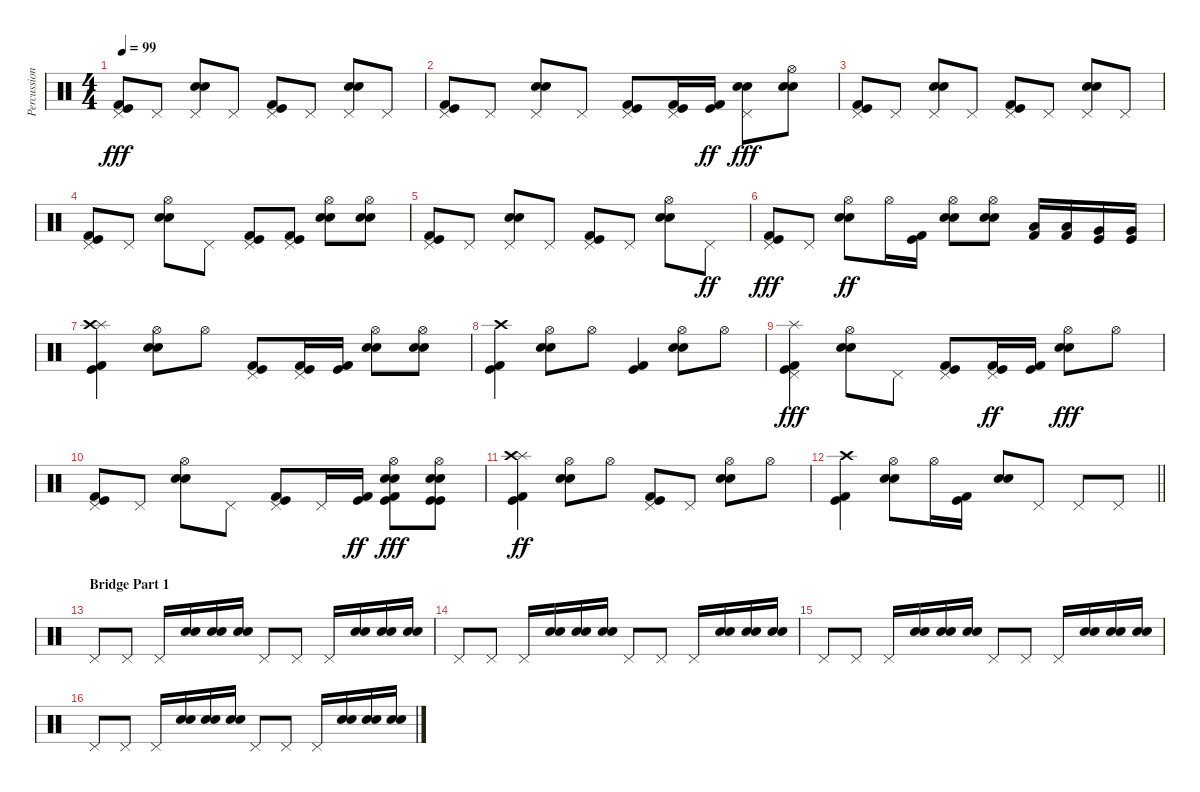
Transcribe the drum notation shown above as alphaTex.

\track ("Percussion" "Percussion") {instrument percussion}
\staff {score}
\articulation defaults
\ts (4 4)
\tempo 99
\clef neutral
\ks c
("Pedal Hi-Hat (hit)" "Kick (hit)" "Kick (hit) 2").8{dy fff} "Pedal Hi-Hat (hit)".8 ("Electric Snare (hit)" "Snare (hit) 2" "Pedal Hi-Hat (hit)").8 "Pedal Hi-Hat (hit)".8 ("Pedal Hi-Hat (hit)" "Kick (hit)" "Kick (hit) 2").8 "Pedal Hi-Hat (hit)".8 ("Electric Snare (hit)" "Snare (hit) 2" "Pedal Hi-Hat (hit)").8 "Pedal Hi-Hat (hit)".8 |
("Pedal Hi-Hat (hit)" "Kick (hit)" "Kick (hit) 2").8 "Pedal Hi-Hat (hit)".8 ("Electric Snare (hit)" "Snare (hit) 2" "Pedal Hi-Hat (hit)").8 "Pedal Hi-Hat (hit)".8 ("Pedal Hi-Hat (hit)" "Kick (hit)" "Kick (hit) 2").8 ("Pedal Hi-Hat (hit)" "Kick (hit)" "Kick (hit) 2").16 ("Kick (hit) 2" "Kick (hit)").16{dy ff} ("Electric Snare (hit)" "Snare (hit) 2" "Pedal Hi-Hat (hit)").8{dy fff} ("Electric Snare (hit)" "Snare (hit) 2" "Hi-Hat (open)").8 |
("Pedal Hi-Hat (hit)" "Kick (hit)" "Kick (hit) 2").8 "Pedal Hi-Hat (hit)".8 ("Electric Snare (hit)" "Snare (hit) 2" "Pedal Hi-Hat (hit)").8 "Pedal Hi-Hat (hit)".8 ("Pedal Hi-Hat (hit)" "Kick (hit)" "Kick (hit) 2").8 "Pedal Hi-Hat (hit)".8 ("Electric Snare (hit)" "Snare (hit) 2" "Pedal Hi-Hat (hit)").8 "Pedal Hi-Hat (hit)".8 |
("Pedal Hi-Hat (hit)" "Kick (hit)" "Kick (hit) 2").8 "Pedal Hi-Hat (hit)".8 ("Electric Snare (hit)" "Snare (hit) 2" "Hi-Hat (open)").8 "Pedal Hi-Hat (hit)".8 ("Pedal Hi-Hat (hit)" "Kick (hit)" "Kick (hit) 2").8 ("Pedal Hi-Hat (hit)" "Kick (hit)" "Kick (hit) 2").8 ("Electric Snare (hit)" "Snare (hit) 2" "Hi-Hat (open)").8 ("Electric Snare (hit)" "Snare (hit) 2" "Hi-Hat (open)").8 |
("Pedal Hi-Hat (hit)" "Kick (hit)" "Kick (hit) 2").8 "Pedal Hi-Hat (hit)".8 ("Electric Snare (hit)" "Snare (hit) 2" "Pedal Hi-Hat (hit)").8 "Pedal Hi-Hat (hit)".8 ("Pedal Hi-Hat (hit)" "Kick (hit)" "Kick (hit) 2").8 "Pedal Hi-Hat (hit)".8 ("Electric Snare (hit)" "Snare (hit) 2" "Hi-Hat (open)").8 "Pedal Hi-Hat (hit)".8{dy ff} |
("Pedal Hi-Hat (hit)" "Kick (hit)" "Kick (hit) 2").8{dy fff} "Pedal Hi-Hat (hit)".8 ("Electric Snare (hit)" "Snare (hit) 2" "Hi-Hat (open)").8{dy ff} "Hi-Hat (open)".16 ("Kick (hit)" "Kick (hit) 2").16 ("Electric Snare (hit)" "Snare (hit) 2" "Hi-Hat (open)").8 ("Electric Snare (hit)" "Snare (hit) 2" "Hi-Hat (open)").8 ("Low Tom (hit)" "Kick (hit) 2").16 ("Low Tom (hit)" "Kick (hit) 2").16 ("Very Low Tom (hit)" "Kick (hit)").16 ("Very Low Tom (hit)" "Kick (hit)").16 |
("Splash (hit)" "Crash high (hit)" "Kick (hit)" "Kick (hit) 2").4 ("Electric Snare (hit)" "Snare (hit) 2" "Hi-Hat (open)").8 "Hi-Hat (open)".8 ("Pedal Hi-Hat (hit)" "Kick (hit)" "Kick (hit) 2").8 ("Pedal Hi-Hat (hit)" "Kick (hit)" "Kick (hit) 2").16 ("Kick (hit)" "Kick (hit) 2").16 ("Electric Snare (hit)" "Snare (hit) 2" "Hi-Hat (open)").8 ("Electric Snare (hit)" "Snare (hit) 2" "Hi-Hat (open)").8 |
("Crash high (hit)" "Kick (hit)" "Kick (hit) 2").4 ("Electric Snare (hit)" "Snare (hit) 2" "Hi-Hat (open)").8 "Hi-Hat (open)".8 ("Kick (hit)" "Kick (hit) 2").4 ("Electric Snare (hit)" "Snare (hit) 2" "Hi-Hat (open)").8 "Hi-Hat (open)".8 |
("Splash (hit)" "Pedal Hi-Hat (hit)" "Kick (hit)" "Kick (hit) 2").4{dy fff} ("Electric Snare (hit)" "Snare (hit) 2" "Hi-Hat (open)").8 "Pedal Hi-Hat (hit)".8 ("Pedal Hi-Hat (hit)" "Kick (hit)" "Kick (hit) 2").8 ("Pedal Hi-Hat (hit)" "Kick (hit)" "Kick (hit) 2").16{dy ff} ("Kick (hit)" "Kick (hit) 2").16 ("Electric Snare (hit)" "Snare (hit) 2" "Hi-Hat (open)").8{dy fff} "Hi-Hat (open)".8 |
("Pedal Hi-Hat (hit)" "Kick (hit)" "Kick (hit) 2").8 "Pedal Hi-Hat (hit)".8 ("Electric Snare (hit)" "Snare (hit) 2" "Hi-Hat (open)").8 "Pedal Hi-Hat (hit)".8 ("Pedal Hi-Hat (hit)" "Kick (hit)" "Kick (hit) 2").8 "Pedal Hi-Hat (hit)".16 ("Kick (hit)" "Kick (hit) 2").16{dy ff} ("Electric Snare (hit)" "Snare (hit) 2" "Hi-Hat (open)" "Kick (hit)" "Kick (hit) 2").8{dy fff} ("Electric Snare (hit)" "Snare (hit) 2" "Hi-Hat (open)" "Kick (hit)" "Kick (hit)").8 |
("Splash (hit)" "Crash high (hit)" "Kick (hit)" "Kick (hit) 2").4{dy ff} ("Electric Snare (hit)" "Snare (hit) 2" "Hi-Hat (open)").8 "Hi-Hat (open)".8 ("Pedal Hi-Hat (hit)" "Kick (hit)" "Kick (hit) 2").8 "Pedal Hi-Hat (hit)".8 ("Electric Snare (hit)" "Snare (hit) 2" "Hi-Hat (open)").8 "Hi-Hat (open)".8 |
\barLineRight lightlight
("Crash high (hit)" "Kick (hit)" "Kick (hit) 2").4 ("Electric Snare (hit)" "Snare (hit) 2" "Hi-Hat (open)").8 "Hi-Hat (open)".16 ("Kick (hit)" "Kick (hit) 2").16 ("Electric Snare (hit)" "Snare (hit) 2").8{bd 120} "Pedal Hi-Hat (hit)".8 "Pedal Hi-Hat (hit)".8 "Pedal Hi-Hat (hit)".8 |
\section ("" "Bridge Part 1")
"Pedal Hi-Hat (hit)".8 "Pedal Hi-Hat (hit)".8 "Pedal Hi-Hat (hit)".16 ("Electric Snare (hit)" "Snare (hit) 2").16 ("Electric Snare (hit)" "Snare (hit) 2").16 ("Electric Snare (hit)" "Snare (hit) 2").16 "Pedal Hi-Hat (hit)".8 "Pedal Hi-Hat (hit)".8 "Pedal Hi-Hat (hit)".16 ("Electric Snare (hit)" "Snare (hit) 2").16 ("Electric Snare (hit)" "Snare (hit) 2").16 ("Electric Snare (hit)" "Snare (hit) 2").16 |
"Pedal Hi-Hat (hit)".8 "Pedal Hi-Hat (hit)".8 "Pedal Hi-Hat (hit)".16 ("Electric Snare (hit)" "Snare (hit) 2").16 ("Electric Snare (hit)" "Snare (hit) 2").16 ("Electric Snare (hit)" "Snare (hit) 2").16 "Pedal Hi-Hat (hit)".8 "Pedal Hi-Hat (hit)".8 "Pedal Hi-Hat (hit)".16 ("Electric Snare (hit)" "Snare (hit) 2").16 ("Electric Snare (hit)" "Snare (hit) 2").16 ("Electric Snare (hit)" "Snare (hit) 2").16 |
"Pedal Hi-Hat (hit)".8 "Pedal Hi-Hat (hit)".8 "Pedal Hi-Hat (hit)".16 ("Electric Snare (hit)" "Snare (hit) 2").16 ("Electric Snare (hit)" "Snare (hit) 2").16 ("Electric Snare (hit)" "Snare (hit) 2").16 "Pedal Hi-Hat (hit)".8 "Pedal Hi-Hat (hit)".8 "Pedal Hi-Hat (hit)".16 ("Electric Snare (hit)" "Snare (hit) 2").16 ("Electric Snare (hit)" "Snare (hit) 2").16 ("Electric Snare (hit)" "Snare (hit) 2").16 |
"Pedal Hi-Hat (hit)".8 "Pedal Hi-Hat (hit)".8 "Pedal Hi-Hat (hit)".16 ("Electric Snare (hit)" "Snare (hit) 2").16 ("Electric Snare (hit)" "Snare (hit) 2").16 ("Electric Snare (hit)" "Snare (hit) 2").16 "Pedal Hi-Hat (hit)".8 "Pedal Hi-Hat (hit)".8 "Pedal Hi-Hat (hit)".16 ("Electric Snare (hit)" "Snare (hit) 2").16 ("Electric Snare (hit)" "Snare (hit) 2").16 ("Electric Snare (hit)" "Snare (hit) 2").16
